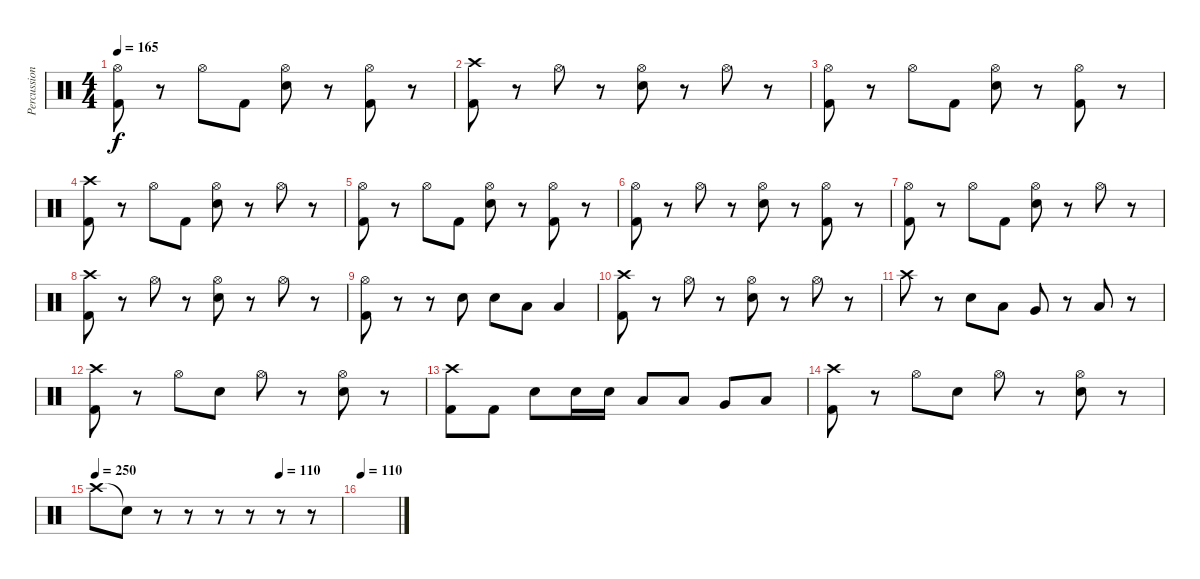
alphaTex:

\track ("Percussion" "Percussion") {instrument percussion}
\staff {score}
\articulation defaults
\ts (4 4)
\tempo 165
\clef neutral
\ks c
("Hi-Hat (open)" "Kick (hit) 2").8{dy f} r.8 "Hi-Hat (open)".8 "Kick (hit) 2".8 ("Hi-Hat (open)" "Electric Snare (hit)").8 r.8 ("Hi-Hat (open)" "Kick (hit) 2").8 r.8 |
("Crash high (hit)" "Kick (hit) 2").8 r.8 "Hi-Hat (open)".8 r.8 ("Hi-Hat (open)" "Electric Snare (hit)").8 r.8 "Hi-Hat (open)".8 r.8 |
("Hi-Hat (open)" "Kick (hit) 2").8 r.8 "Hi-Hat (open)".8 "Kick (hit) 2".8 ("Hi-Hat (open)" "Electric Snare (hit)").8 r.8 ("Hi-Hat (open)" "Kick (hit) 2").8 r.8 |
("Crash high (hit)" "Kick (hit) 2").8 r.8 "Hi-Hat (open)".8 "Kick (hit) 2".8 ("Hi-Hat (open)" "Electric Snare (hit)").8 r.8 "Hi-Hat (open)".8 r.8 |
("Hi-Hat (open)" "Kick (hit) 2").8 r.8 "Hi-Hat (open)".8 "Kick (hit) 2".8 ("Hi-Hat (open)" "Electric Snare (hit)").8 r.8 ("Hi-Hat (open)" "Kick (hit) 2").8 r.8 |
("Hi-Hat (open)" "Kick (hit) 2").8 r.8 "Hi-Hat (open)".8 r.8 ("Hi-Hat (open)" "Electric Snare (hit)").8 r.8 ("Hi-Hat (open)" "Kick (hit) 2").8 r.8 |
("Hi-Hat (open)" "Kick (hit) 2").8 r.8 "Hi-Hat (open)".8 "Kick (hit) 2".8 ("Hi-Hat (open)" "Electric Snare (hit)").8 r.8 "Hi-Hat (open)".8 r.8 |
("Crash high (hit)" "Kick (hit) 2").8 r.8 "Hi-Hat (open)".8 r.8 ("Hi-Hat (open)" "Electric Snare (hit)").8 r.8 "Hi-Hat (open)".8 r.8 |
("Hi-Hat (open)" "Kick (hit) 2").8 r.8 r.8 "Electric Snare (hit)".8 "Electric Snare (hit)".8 "Low Tom (hit)".8 "Low Tom (hit)".4 |
("Crash high (hit)" "Kick (hit) 2").8 r.8 "Hi-Hat (open)".8 r.8 ("Hi-Hat (open)" "Electric Snare (hit)").8 r.8 "Hi-Hat (open)".8 r.8 |
"Crash high (hit)".8 r.8 "Electric Snare (hit)".8 "Low Tom (hit)".8 "Very Low Tom (hit)".8 r.8 "Low Floor Tom (hit)".8 r.8 |
("Crash high (hit)" "Kick (hit) 2").8 r.8 "Hi-Hat (open)".8 "Electric Snare (hit)".8 "Hi-Hat (open)".8 r.8 ("Hi-Hat (open)" "Electric Snare (hit)").8 r.8 |
("Crash high (hit)" "Kick (hit) 2").8 "Kick (hit) 2".8 "Electric Snare (hit)".8 "Electric Snare (hit)".16 "Electric Snare (hit)".16 "Low Tom (hit)".8 "Low Tom (hit)".8 "Very Low Tom (hit)".8 "Low Floor Tom (hit)".8 |
("Crash high (hit)" "Kick (hit) 2").8 r.8 "Hi-Hat (open)".8 "Electric Snare (hit)".8 "Hi-Hat (open)".8 r.8 ("Hi-Hat (open)" "Electric Snare (hit)").8 r.8 |
\tempo 250
\tempo (110 0.75)
"Crash high (hit)".8 "Snare (hit)"{t}.8 r.8 r.8 r.8 r.8 r.8 r.8 |
\tempo 110
